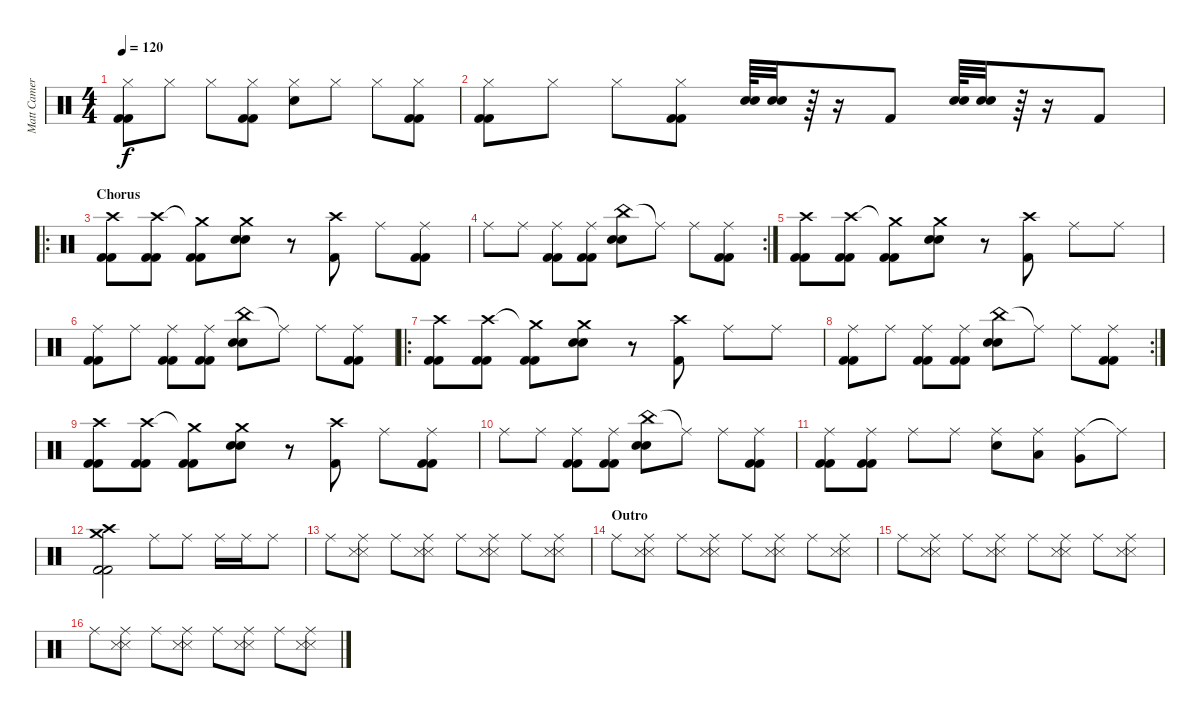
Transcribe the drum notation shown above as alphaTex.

\track ("Matt Cameron" "Matt Camer") {instrument percussion}
\staff {score}
\articulation defaults
\ts (4 4)
\tempo 120
\clef neutral
\ks c
("Hi-Hat (closed)" "Kick (hit) 2" "Kick (hit) 2").8{dy f} "Hi-Hat (closed)".8 "Hi-Hat (closed)".8 ("Hi-Hat (closed)" "Kick (hit) 2" "Kick (hit) 2").8 ("Hi-Hat (closed)" "Electric Snare (hit)").8 "Hi-Hat (closed)".8 "Hi-Hat (closed)".8 ("Hi-Hat (closed)" "Kick (hit) 2" "Kick (hit) 2").8 |
("Hi-Hat (closed)" "Kick (hit) 2" "Kick (hit) 2").8 "Hi-Hat (closed)".8 "Hi-Hat (closed)".8 ("Hi-Hat (closed)" "Kick (hit) 2" "Kick (hit) 2").8 ("Electric Snare (hit)" "Electric Snare (hit)").64 ("Electric Snare (hit)" "Electric Snare (hit)").32 r.64 r.16 "Kick (hit) 2".8 ("Electric Snare (hit)" "Electric Snare (hit)").64 ("Electric Snare (hit)" "Electric Snare (hit)").32 r.64 r.16 "Kick (hit) 2".8 |
\ro
\section ("" "Chorus")
("Crash high (hit)" "Kick (hit) 2" "Kick (hit) 2").8 ("Crash high (hit)" "Kick (hit) 2" "Kick (hit) 2").8 ("Crash medium (hit)"{t} "Kick (hit) 2" "Kick (hit) 2").8 ("Crash medium (hit)" "Electric Snare (hit)" "Electric Snare (hit)").8 r.8 ("Crash high (hit)" "Kick (hit) 2").8 "Ride (middle)".8 ("Ride (middle)" "Kick (hit) 2" "Kick (hit) 2").8 |
\rc 2 "Ride (middle)".8 "Ride (middle)".8
("Ride (middle)" "Kick (hit) 2" "Kick (hit) 2").8 ("Ride (middle)" "Kick (hit) 2" "Kick (hit) 2").8 ("China (hit)" "Electric Snare (hit)" "Electric Snare (hit)").8 "Ride (middle)"{t}.8 "Ride (middle)".8 ("Ride (middle)" "Kick (hit) 2" "Kick (hit) 2").8 |
("Crash high (hit)" "Kick (hit) 2" "Kick (hit) 2").8 ("Crash high (hit)" "Kick (hit) 2" "Kick (hit) 2").8 ("Crash medium (hit)"{t} "Kick (hit) 2" "Kick (hit) 2").8 ("Crash medium (hit)" "Electric Snare (hit)" "Electric Snare (hit)").8 r.8 ("Crash high (hit)" "Kick (hit) 2").8 "Ride (middle)".8 "Ride (middle)".8 |
("Ride (middle)" "Kick (hit) 2" "Kick (hit) 2").8 "Ride (middle)".8 ("Ride (middle)" "Kick (hit) 2" "Kick (hit) 2").8 ("Ride (middle)" "Kick (hit) 2" "Kick (hit) 2").8 ("China (hit)" "Electric Snare (hit)" "Electric Snare (hit)").8 "Ride (middle)"{t}.8 "Ride (middle)".8 ("Ride (middle)" "Kick (hit) 2" "Kick (hit) 2").8 |
\ro
("Crash high (hit)" "Kick (hit) 2" "Kick (hit) 2").8 ("Crash high (hit)" "Kick (hit) 2" "Kick (hit) 2").8 ("Crash medium (hit)"{t} "Kick (hit) 2" "Kick (hit) 2").8 ("Crash medium (hit)" "Electric Snare (hit)" "Electric Snare (hit)").8 r.8 ("Crash high (hit)" "Kick (hit) 2").8 "Ride (middle)".8 "Ride (middle)".8 |
\rc 2
("Ride (middle)" "Kick (hit) 2" "Kick (hit) 2").8 "Ride (middle)".8 ("Ride (middle)" "Kick (hit) 2" "Kick (hit) 2").8 ("Ride (middle)" "Kick (hit) 2" "Kick (hit) 2").8 ("China (hit)" "Electric Snare (hit)" "Electric Snare (hit)").8 "Ride (middle)"{t}.8 "Ride (middle)".8 ("Ride (middle)" "Kick (hit) 2" "Kick (hit) 2").8 |
("Crash high (hit)" "Kick (hit) 2" "Kick (hit) 2").8 ("Crash high (hit)" "Kick (hit) 2" "Kick (hit) 2").8 ("Crash medium (hit)"{t} "Kick (hit) 2" "Kick (hit) 2").8 ("Crash medium (hit)" "Electric Snare (hit)" "Electric Snare (hit)").8 r.8 ("Crash high (hit)" "Kick (hit) 2").8 "Ride (middle)".8 ("Ride (middle)" "Kick (hit) 2" "Kick (hit) 2").8 |
"Ride (middle)".8 "Ride (middle)".8 ("Ride (middle)" "Kick (hit) 2" "Kick (hit) 2").8 ("Ride (middle)" "Kick (hit) 2" "Kick (hit) 2").8 ("China (hit)" "Electric Snare (hit)" "Electric Snare (hit)").8 "Ride (middle)"{t}.8 "Ride (middle)".8 ("Ride (middle)" "Kick (hit) 2" "Kick (hit) 2").8 |
("Ride (middle)" "Kick (hit) 2" "Kick (hit) 2").8 ("Ride (middle)" "Kick (hit) 2" "Kick (hit) 2").8 "Ride (middle)".8 "Ride (middle)".8 ("Ride (middle)" "Electric Snare (hit)").8 ("Ride (middle)" "Low Tom (hit)").8 ("Ride (middle)" "Very Low Tom (hit)").8 "Ride (middle)"{t}.8 |
("Crash high (hit)" "Crash medium (hit)" "Kick (hit) 2" "Kick (hit) 2").2 "Ride (middle)".8 "Ride (middle)".8 "Ride (middle)".16 "Ride (middle)".16 "Ride (middle)".8 |
"Ride (middle)".8 ("Ride (middle)" "Snare (side stick) 3" "Snare (side stick) 3").8 "Ride (middle)".8 ("Ride (middle)" "Snare (side stick) 3" "Snare (side stick) 3").8 "Ride (middle)".8 ("Ride (middle)" "Snare (side stick) 3" "Snare (side stick) 3").8 "Ride (middle)".8 ("Ride (middle)" "Snare (side stick) 3" "Snare (side stick) 3").8 |
\section ("" "Outro")
"Ride (middle)".8 ("Ride (middle)" "Snare (side stick) 3" "Snare (side stick) 3").8 "Ride (middle)".8 ("Ride (middle)" "Snare (side stick) 3" "Snare (side stick) 3").8 "Ride (middle)".8 ("Ride (middle)" "Snare (side stick) 3" "Snare (side stick) 3").8 "Ride (middle)".8 ("Ride (middle)" "Snare (side stick) 3" "Snare (side stick) 3").8 |
"Ride (middle)".8 ("Ride (middle)" "Snare (side stick) 3" "Snare (side stick) 3").8 "Ride (middle)".8 ("Ride (middle)" "Snare (side stick) 3" "Snare (side stick) 3").8 "Ride (middle)".8 ("Ride (middle)" "Snare (side stick) 3" "Snare (side stick) 3").8 "Ride (middle)".8 ("Ride (middle)" "Snare (side stick) 3" "Snare (side stick) 3").8 |
"Ride (middle)".8 ("Ride (middle)" "Snare (side stick) 3" "Snare (side stick) 3").8 "Ride (middle)".8 ("Ride (middle)" "Snare (side stick) 3" "Snare (side stick) 3").8 "Ride (middle)".8 ("Ride (middle)" "Snare (side stick) 3" "Snare (side stick) 3").8 "Ride (middle)".8 ("Ride (middle)" "Snare (side stick) 3" "Snare (side stick) 3").8
